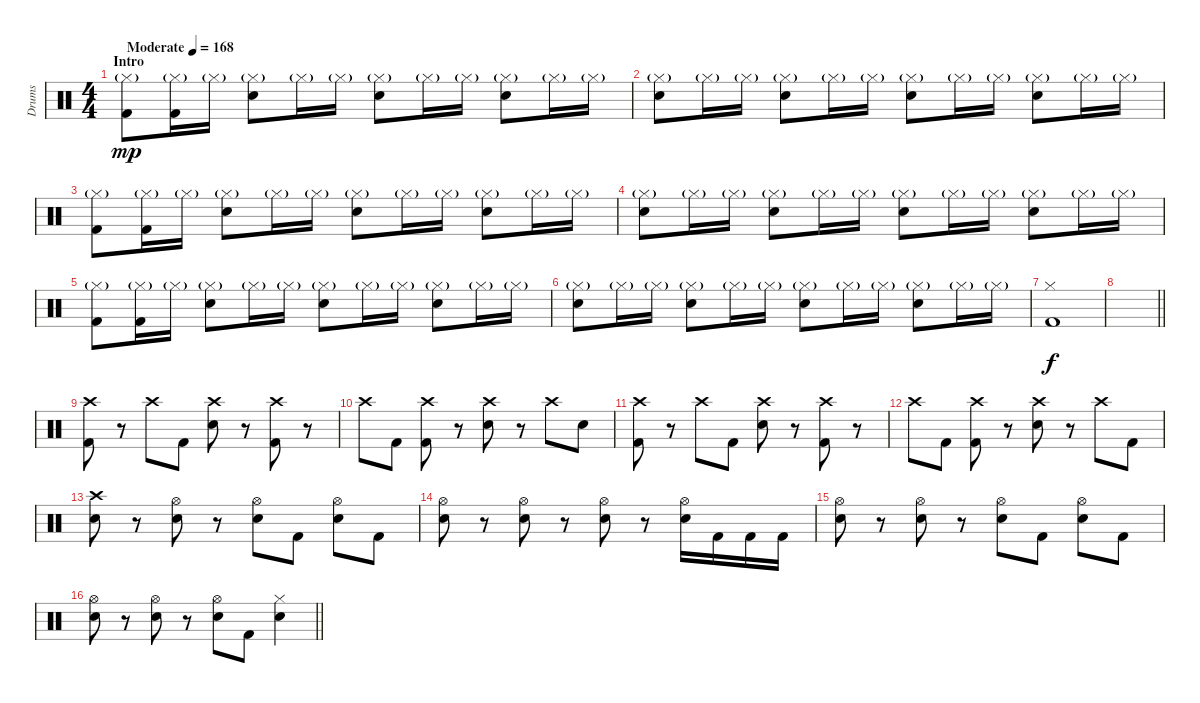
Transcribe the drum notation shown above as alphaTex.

\track ("Drums" "Drums") {instrument percussion}
\staff {score}
\articulation defaults
\ts (4 4)
\section ("" "Intro")
\tempo (168 "Moderate")
\clef neutral
\ks c
("Hi-Hat (closed)"{g} "Kick (hit) 2").8{dy mp} ("Hi-Hat (closed)"{g} "Kick (hit) 2").16 "Hi-Hat (closed)"{g}.16 ("Hi-Hat (closed)"{g} "Hand Clap (hit)").8 "Hi-Hat (closed)"{g}.16 "Hi-Hat (closed)"{g}.16 ("Hi-Hat (closed)"{g} "Hand Clap (hit)").8 "Hi-Hat (closed)"{g}.16 "Hi-Hat (closed)"{g}.16 ("Hi-Hat (closed)"{g} "Hand Clap (hit)").8 "Hi-Hat (closed)"{g}.16 "Hi-Hat (closed)"{g}.16 |
("Hi-Hat (closed)"{g} "Hand Clap (hit)").8 "Hi-Hat (closed)"{g}.16 "Hi-Hat (closed)"{g}.16 ("Hi-Hat (closed)"{g} "Hand Clap (hit)").8 "Hi-Hat (closed)"{g}.16 "Hi-Hat (closed)"{g}.16 ("Hi-Hat (closed)"{g} "Hand Clap (hit)").8 "Hi-Hat (closed)"{g}.16 "Hi-Hat (closed)"{g}.16 ("Hi-Hat (closed)"{g} "Hand Clap (hit)").8 "Hi-Hat (closed)"{g}.16 "Hi-Hat (closed)"{g}.16 |
("Hi-Hat (closed)"{g} "Kick (hit) 2").8 ("Hi-Hat (closed)"{g} "Kick (hit) 2").16 "Hi-Hat (closed)"{g}.16 ("Hi-Hat (closed)"{g} "Hand Clap (hit)").8 "Hi-Hat (closed)"{g}.16 "Hi-Hat (closed)"{g}.16 ("Hi-Hat (closed)"{g} "Hand Clap (hit)").8 "Hi-Hat (closed)"{g}.16 "Hi-Hat (closed)"{g}.16 ("Hi-Hat (closed)"{g} "Hand Clap (hit)").8 "Hi-Hat (closed)"{g}.16 "Hi-Hat (closed)"{g}.16 |
("Hi-Hat (closed)"{g} "Hand Clap (hit)").8 "Hi-Hat (closed)"{g}.16 "Hi-Hat (closed)"{g}.16 ("Hi-Hat (closed)"{g} "Hand Clap (hit)").8 "Hi-Hat (closed)"{g}.16 "Hi-Hat (closed)"{g}.16 ("Hi-Hat (closed)"{g} "Hand Clap (hit)").8 "Hi-Hat (closed)"{g}.16 "Hi-Hat (closed)"{g}.16 ("Hi-Hat (closed)"{g} "Hand Clap (hit)").8 "Hi-Hat (closed)"{g}.16 "Hi-Hat (closed)"{g}.16 |
("Hi-Hat (closed)"{g} "Kick (hit) 2").8 ("Hi-Hat (closed)"{g} "Kick (hit) 2").16 "Hi-Hat (closed)"{g}.16 ("Hi-Hat (closed)"{g} "Hand Clap (hit)").8 "Hi-Hat (closed)"{g}.16 "Hi-Hat (closed)"{g}.16 ("Hi-Hat (closed)"{g} "Hand Clap (hit)").8 "Hi-Hat (closed)"{g}.16 "Hi-Hat (closed)"{g}.16 ("Hi-Hat (closed)"{g} "Hand Clap (hit)").8 "Hi-Hat (closed)"{g}.16 "Hi-Hat (closed)"{g}.16 |
("Hi-Hat (closed)"{g} "Hand Clap (hit)").8 "Hi-Hat (closed)"{g}.16 "Hi-Hat (closed)"{g}.16 ("Hi-Hat (closed)"{g} "Hand Clap (hit)").8 "Hi-Hat (closed)"{g}.16 "Hi-Hat (closed)"{g}.16 ("Hi-Hat (closed)"{g} "Hand Clap (hit)").8 "Hi-Hat (closed)"{g}.16 "Hi-Hat (closed)"{g}.16 ("Hi-Hat (closed)"{g} "Hand Clap (hit)").8 "Hi-Hat (closed)"{g}.16 "Hi-Hat (closed)"{g}.16 |
("Hi-Hat (closed)" "Kick (hit) 2").1{dy f} |
\barLineRight lightlight
|
("Crash high (hit)" "Kick (hit) 2").8 r.8 "Crash high (hit)".8 "Kick (hit) 2".8 ("Crash high (hit)" "Snare (hit) 2").8 r.8 ("Crash high (hit)" "Kick (hit) 2").8 r.8 |
"Crash high (hit)".8 "Kick (hit) 2".8 ("Crash high (hit)" "Kick (hit) 2").8 r.8 ("Crash high (hit)" "Snare (hit) 2").8 r.8 "Crash high (hit)".8 "Snare (hit) 2".8 |
("Crash high (hit)" "Kick (hit) 2").8 r.8 "Crash high (hit)".8 "Kick (hit) 2".8 ("Crash high (hit)" "Snare (hit) 2").8 r.8 ("Crash high (hit)" "Kick (hit) 2").8 r.8 |
"Crash high (hit)".8 "Kick (hit) 2".8 ("Crash high (hit)" "Kick (hit) 2").8 r.8 ("Crash high (hit)" "Snare (hit) 2").8 r.8 "Crash high (hit)".8 "Kick (hit) 2".8 |
("Crash high (hit)" "Snare (hit) 2").8 r.8 ("Hi-Hat (open)" "Snare (hit) 2").8 r.8 ("Hi-Hat (open)" "Snare (hit) 2").8 "Kick (hit) 2".8 ("Hi-Hat (open)" "Snare (hit) 2").8 "Kick (hit) 2".8 |
("Hi-Hat (open)" "Snare (hit) 2").8 r.8 ("Hi-Hat (open)" "Snare (hit) 2").8 r.8 ("Hi-Hat (open)" "Snare (hit) 2").8 r.8 ("Hi-Hat (open)" "Snare (hit) 2").16 "Kick (hit) 2".16 "Kick (hit) 2".16 "Kick (hit) 2".16 |
("Hi-Hat (open)" "Snare (hit) 2").8 r.8 ("Hi-Hat (open)" "Snare (hit) 2").8 r.8 ("Hi-Hat (open)" "Snare (hit) 2").8 "Kick (hit) 2".8 ("Hi-Hat (open)" "Snare (hit) 2").8 "Kick (hit) 2".8 |
\barLineRight lightlight
("Hi-Hat (open)" "Snare (hit) 2").8 r.8 ("Hi-Hat (open)" "Snare (hit) 2").8 r.8 ("Hi-Hat (open)" "Snare (hit) 2").8 "Kick (hit) 2".8 ("Hi-Hat (closed)" "Snare (hit) 2").4
